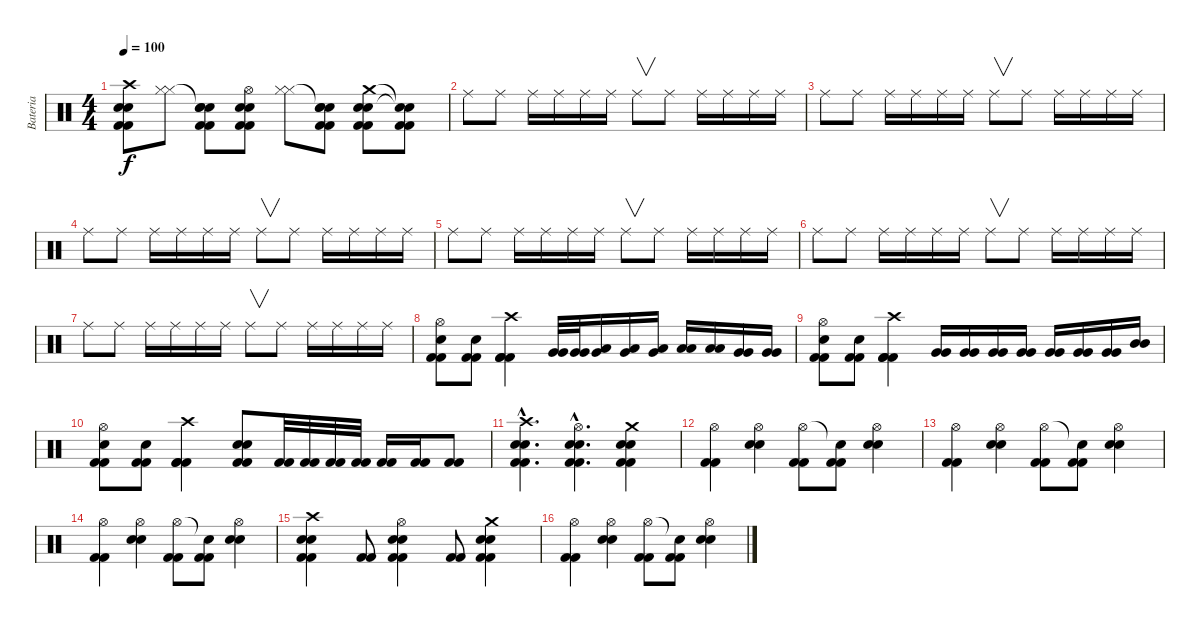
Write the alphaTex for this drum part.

\track ("Bateria" "Bateria") {instrument percussion}
\staff {score}
\articulation defaults
\ts (4 4)
\tempo 100
\clef neutral
\ks c
("Crash high (hit)" "Snare (hit) 2" "Snare (hit) 2" "Kick (hit) 2" "Kick (hit) 2").8{dy f} ("Hi-Hat (closed)" "Hi-Hat (closed)").8 ("Snare (hit)"{t} "Electric Snare (hit)" "Electric Snare (hit)" "Kick (hit) 2" "Kick (hit) 2").8 ("Hi-Hat (open)" "Snare (hit) 2" "Snare (hit) 2" "Kick (hit) 2" "Kick (hit) 2").8 ("Hi-Hat (closed)" "Hi-Hat (closed)").8 ("Snare (hit)"{t} "Electric Snare (hit)" "Electric Snare (hit)" "Kick (hit) 2" "Kick (hit) 2").8 ("Crash medium (hit)" "Snare (hit) 2" "Snare (hit) 2" "Kick (hit) 2" "Kick (hit) 2").8 ("Snare (hit)"{t} "Snare (hit) 2"{t} "Kick (hit) 2" "Kick (hit) 2").8 |
"Ride (middle)".8 "Ride (middle)".8 "Ride (middle)".16 "Ride (middle)".16 "Ride (middle)".16 "Ride (middle)".16 "Ride (middle)".8{v} "Ride (middle)".8 "Ride (middle)".16 "Ride (middle)".16 "Ride (middle)".16 "Ride (middle)".16 |
"Ride (middle)".8 "Ride (middle)".8 "Ride (middle)".16 "Ride (middle)".16 "Ride (middle)".16 "Ride (middle)".16 "Ride (middle)".8{v} "Ride (middle)".8 "Ride (middle)".16 "Ride (middle)".16 "Ride (middle)".16 "Ride (middle)".16 |
"Ride (middle)".8 "Ride (middle)".8 "Ride (middle)".16 "Ride (middle)".16 "Ride (middle)".16 "Ride (middle)".16 "Ride (middle)".8{v} "Ride (middle)".8 "Ride (middle)".16 "Ride (middle)".16 "Ride (middle)".16 "Ride (middle)".16 |
"Ride (middle)".8 "Ride (middle)".8 "Ride (middle)".16 "Ride (middle)".16 "Ride (middle)".16 "Ride (middle)".16 "Ride (middle)".8{v} "Ride (middle)".8 "Ride (middle)".16 "Ride (middle)".16 "Ride (middle)".16 "Ride (middle)".16 |
"Ride (middle)".8 "Ride (middle)".8 "Ride (middle)".16 "Ride (middle)".16 "Ride (middle)".16 "Ride (middle)".16 "Ride (middle)".8{v} "Ride (middle)".8 "Ride (middle)".16 "Ride (middle)".16 "Ride (middle)".16 "Ride (middle)".16 |
"Ride (middle)".8 "Ride (middle)".8 "Ride (middle)".16 "Ride (middle)".16 "Ride (middle)".16 "Ride (middle)".16 "Ride (middle)".8{v} "Ride (middle)".8 "Ride (middle)".16 "Ride (middle)".16 "Ride (middle)".16 "Ride (middle)".16 |
("Hi-Hat (open)" "Snare (hit) 2" "Kick (hit) 2" "Kick (hit) 2").8 ("Snare (hit) 2" "Kick (hit) 2" "Kick (hit) 2").8 ("Crash high (hit)" "Kick (hit) 2" "Kick (hit) 2" "Kick (hit) 2").4 ("Very Low Tom (hit)" "Very Low Tom (hit)").32 ("Very Low Tom (hit)" "Very Low Tom (hit)").32 ("Very Low Tom (hit)" "Low Tom (hit)").16 ("Very Low Tom (hit)" "Low Tom (hit)").16 ("Very Low Tom (hit)" "Low Tom (hit)").16 ("Low Tom (hit)" "Low Tom (hit)").16 ("Low Tom (hit)" "Low Tom (hit)").16 ("Very Low Tom (hit)" "Very Low Tom (hit)").16 ("Very Low Tom (hit)" "Very Low Tom (hit)").16 |
("Hi-Hat (open)" "Snare (hit) 2" "Kick (hit) 2" "Kick (hit) 2").8 ("Snare (hit) 2" "Kick (hit) 2" "Kick (hit) 2").8 ("Crash high (hit)" "Kick (hit) 2" "Kick (hit) 2" "Kick (hit) 2").4 ("Very Low Tom (hit)" "Very Low Tom (hit)").16 ("Very Low Tom (hit)" "Very Low Tom (hit)").16 ("Very Low Tom (hit)" "Very Low Tom (hit)").16 ("Very Low Tom (hit)" "Very Low Tom (hit)").16 ("Very Low Tom (hit)" "Very Low Tom (hit)").16 ("Very Low Tom (hit)" "Very Low Tom (hit)").16 ("Very Low Tom (hit)" "Very Low Tom (hit)").16 ("Mid Tom (hit)" "Mid Tom (hit)").16 |
("Hi-Hat (open)" "Snare (hit) 2" "Kick (hit) 2" "Kick (hit) 2").8 ("Snare (hit) 2" "Kick (hit) 2" "Kick (hit) 2").8 ("Crash high (hit)" "Kick (hit) 2" "Kick (hit) 2" "Kick (hit) 2").4 ("Electric Snare (hit)" "Electric Snare (hit)" "Kick (hit) 2" "Kick (hit) 2").8 ("Kick (hit) 2" "Kick (hit) 2").32 ("Kick (hit) 2" "Kick (hit) 2").32 ("Kick (hit) 2" "Kick (hit) 2").32 ("Kick (hit) 2" "Kick (hit) 2").32 ("Kick (hit) 2" "Kick (hit) 2").16 ("Kick (hit) 2" "Kick (hit) 2").16 ("Kick (hit) 2" "Kick (hit) 2").8 |
("Crash high (hit)"{hac} "Snare (hit) 2"{hac} "Snare (hit) 2"{hac} "Kick (hit) 2"{hac} "Kick (hit) 2"{hac}).4{d} ("Hi-Hat (open)"{hac} "Snare (hit) 2"{hac} "Snare (hit) 2"{hac} "Kick (hit) 2"{hac} "Kick (hit) 2"{hac}).4{d} ("Crash medium (hit)" "Snare (hit) 2" "Snare (hit) 2" "Kick (hit) 2" "Kick (hit) 2").4 |
("Kick (hit) 2" "Kick (hit) 2" "Hi-Hat (open)").4 ("Electric Snare (hit)" "Electric Snare (hit)" "Hi-Hat (open)").4 ("Kick (hit) 2" "Kick (hit) 2" "Hi-Hat (open)").8 ("Kick (hit) 2" "Kick (hit) 2" "Snare (hit)"{t}).8 ("Electric Snare (hit)" "Electric Snare (hit)" "Hi-Hat (open)").4 |
("Kick (hit) 2" "Kick (hit) 2" "Hi-Hat (open)").4 ("Electric Snare (hit)" "Electric Snare (hit)" "Hi-Hat (open)").4 ("Kick (hit) 2" "Kick (hit) 2" "Hi-Hat (open)").8 ("Kick (hit) 2" "Kick (hit) 2" "Snare (hit)"{t}).8 ("Electric Snare (hit)" "Electric Snare (hit)" "Hi-Hat (open)").4 |
("Kick (hit) 2" "Kick (hit) 2" "Hi-Hat (open)").4 ("Electric Snare (hit)" "Electric Snare (hit)" "Hi-Hat (open)").4 ("Kick (hit) 2" "Kick (hit) 2" "Hi-Hat (open)").8 ("Kick (hit) 2" "Kick (hit) 2" "Snare (hit)"{t}).8 ("Electric Snare (hit)" "Electric Snare (hit)" "Hi-Hat (open)").4 |
("Kick (hit) 2" "Kick (hit) 2" "Snare (hit) 2" "Snare (hit) 2" "Crash high (hit)").4 ("Kick (hit) 2" "Kick (hit) 2").8 ("Kick (hit) 2" "Kick (hit) 2" "Snare (hit) 2" "Snare (hit) 2" "Hi-Hat (open)").4 ("Kick (hit) 2" "Kick (hit) 2").8 ("Kick (hit) 2" "Kick (hit) 2" "Snare (hit) 2" "Snare (hit) 2" "Crash medium (hit)").4 |
("Kick (hit) 2" "Kick (hit) 2" "Hi-Hat (open)").4 ("Electric Snare (hit)" "Electric Snare (hit)" "Hi-Hat (open)").4 ("Kick (hit) 2" "Kick (hit) 2" "Hi-Hat (open)").8 ("Kick (hit) 2" "Kick (hit) 2" "Snare (hit)"{t}).8 ("Electric Snare (hit)" "Electric Snare (hit)" "Hi-Hat (open)").4
